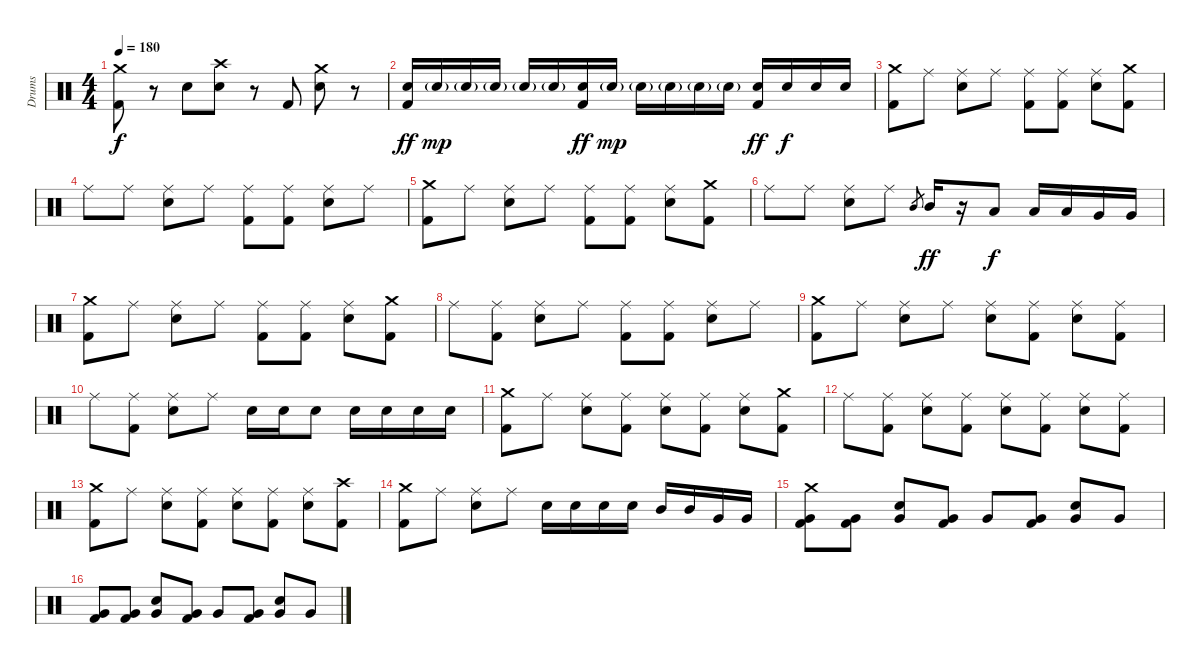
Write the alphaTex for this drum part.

\track ("Drums" "Drums") {instrument percussion}
\staff {score}
\articulation defaults
\ts (4 4)
\tempo 180
\clef neutral
\ks c
("Crash medium (hit)" "Kick (hit) 2").8{dy f} r.8 "Electric Snare (hit)".8 ("Crash high (hit)" "Electric Snare (hit)").8 r.8 "Kick (hit) 2".8 ("Crash medium (hit)" "Electric Snare (hit)").8 r.8 |
("Electric Snare (hit)" "Kick (hit) 2").16{dy ff} "Electric Snare (hit)"{g}.16{dy mp} "Electric Snare (hit)"{g}.16 "Electric Snare (hit)"{g}.16 "Electric Snare (hit)"{g}.16 "Electric Snare (hit)"{g}.16 ("Electric Snare (hit)" "Kick (hit) 2").16{dy ff} "Electric Snare (hit)"{g}.16{dy mp} "Electric Snare (hit)"{g}.16 "Electric Snare (hit)"{g}.16 "Electric Snare (hit)"{g}.16 "Electric Snare (hit)"{g}.16 ("Electric Snare (hit)" "Kick (hit) 2").16{dy ff} "Electric Snare (hit)".16{dy f} "Electric Snare (hit)".16 "Electric Snare (hit)".16 |
("Crash medium (hit)" "Kick (hit) 2").8 "Ride (middle)".8 ("Ride (middle)" "Electric Snare (hit)").8 "Ride (middle)".8 ("Ride (middle)" "Kick (hit) 2").8 ("Ride (middle)" "Kick (hit) 2").8 ("Ride (middle)" "Electric Snare (hit)").8 ("Crash medium (hit)" "Kick (hit) 2").8 |
"Ride (middle)".8 "Ride (middle)".8 ("Ride (middle)" "Electric Snare (hit)").8 "Ride (middle)".8 ("Ride (middle)" "Kick (hit) 2").8 ("Ride (middle)" "Kick (hit) 2").8 ("Ride (middle)" "Electric Snare (hit)").8 "Ride (middle)".8 |
("Crash medium (hit)" "Kick (hit) 2").8 "Ride (middle)".8 ("Ride (middle)" "Electric Snare (hit)").8 "Ride (middle)".8 ("Ride (middle)" "Kick (hit) 2").8 ("Ride (middle)" "Kick (hit) 2").8 ("Ride (middle)" "Electric Snare (hit)").8 ("Crash medium (hit)" "Kick (hit) 2").8 |
"Ride (middle)".8 "Ride (middle)".8 ("Ride (middle)" "Electric Snare (hit)").8 "Ride (middle)".8 "Mid Tom (hit)".8{gr} "Mid Tom (hit)".16{dy ff} r.16 "Low Tom (hit)".8{dy f} "Low Tom (hit)".16 "Low Tom (hit)".16 "Very Low Tom (hit)".16 "Very Low Tom (hit)".16 |
("Crash medium (hit)" "Kick (hit) 2").8 "Ride (middle)".8 ("Ride (middle)" "Electric Snare (hit)").8 "Ride (middle)".8 ("Ride (middle)" "Kick (hit) 2").8 ("Ride (middle)" "Kick (hit) 2").8 ("Ride (middle)" "Electric Snare (hit)").8 ("Crash medium (hit)" "Kick (hit) 2").8 |
"Ride (middle)".8 ("Ride (middle)" "Kick (hit) 2").8 ("Ride (middle)" "Electric Snare (hit)").8 "Ride (middle)".8 ("Ride (middle)" "Kick (hit) 2").8 ("Ride (middle)" "Kick (hit) 2").8 ("Ride (middle)" "Electric Snare (hit)").8 "Ride (middle)".8 |
("Crash medium (hit)" "Kick (hit) 2").8 "Ride (middle)".8 ("Ride (middle)" "Electric Snare (hit)").8 "Ride (middle)".8 ("Ride (middle)" "Electric Snare (hit)").8 ("Ride (middle)" "Kick (hit) 2").8 ("Ride (middle)" "Electric Snare (hit)").8 ("Ride (middle)" "Kick (hit) 2").8 |
"Ride (middle)".8 ("Ride (middle)" "Kick (hit) 2").8 ("Ride (middle)" "Electric Snare (hit)").8 "Ride (middle)".8 "Electric Snare (hit)".16 "Electric Snare (hit)".16 "Electric Snare (hit)".8 "Electric Snare (hit)".16 "Electric Snare (hit)".16 "Electric Snare (hit)".16 "Electric Snare (hit)".16 |
("Crash medium (hit)" "Kick (hit) 2").8 "Ride (middle)".8 ("Ride (middle)" "Electric Snare (hit)").8 ("Ride (middle)" "Kick (hit) 2").8 ("Ride (middle)" "Electric Snare (hit)").8 ("Ride (middle)" "Kick (hit) 2").8 ("Ride (middle)" "Electric Snare (hit)").8 ("Crash medium (hit)" "Kick (hit) 2").8 |
"Ride (middle)".8 ("Ride (middle)" "Kick (hit) 2").8 ("Ride (middle)" "Electric Snare (hit)").8 ("Ride (middle)" "Kick (hit) 2").8 ("Ride (middle)" "Electric Snare (hit)").8 ("Ride (middle)" "Kick (hit) 2").8 ("Ride (middle)" "Electric Snare (hit)").8 ("Ride (middle)" "Kick (hit) 2").8 |
("Crash medium (hit)" "Kick (hit) 2").8 "Ride (middle)".8 ("Ride (middle)" "Electric Snare (hit)").8 ("Ride (middle)" "Kick (hit) 2").8 ("Ride (middle)" "Electric Snare (hit)").8 ("Ride (middle)" "Kick (hit) 2").8 ("Ride (middle)" "Electric Snare (hit)").8 ("Crash high (hit)" "Kick (hit) 2").8 |
("Crash medium (hit)" "Kick (hit) 2").8 "Ride (middle)".8 ("Ride (middle)" "Electric Snare (hit)").8 "Ride (middle)".8 "Electric Snare (hit)".16 "Electric Snare (hit)".16 "Electric Snare (hit)".16 "Electric Snare (hit)".16 "Mid Tom (hit)".16 "Mid Tom (hit)".16 "Very Low Tom (hit)".16 "Very Low Tom (hit)".16 |
("Crash medium (hit)" "Very Low Tom (hit)" "Kick (hit) 2").8 ("Very Low Tom (hit)" "Kick (hit) 2").8 ("Electric Snare (hit)" "Very Low Tom (hit)").8 ("Very Low Tom (hit)" "Kick (hit) 2").8 "Very Low Tom (hit)".8 ("Very Low Tom (hit)" "Kick (hit) 2").8 ("Electric Snare (hit)" "Very Low Tom (hit)").8 "Very Low Tom (hit)".8 |
("Very Low Tom (hit)" "Kick (hit) 2").8 ("Very Low Tom (hit)" "Kick (hit) 2").8 ("Electric Snare (hit)" "Very Low Tom (hit)").8 ("Very Low Tom (hit)" "Kick (hit) 2").8 "Very Low Tom (hit)".8 ("Very Low Tom (hit)" "Kick (hit) 2").8 ("Electric Snare (hit)" "Very Low Tom (hit)").8 "Very Low Tom (hit)".8
